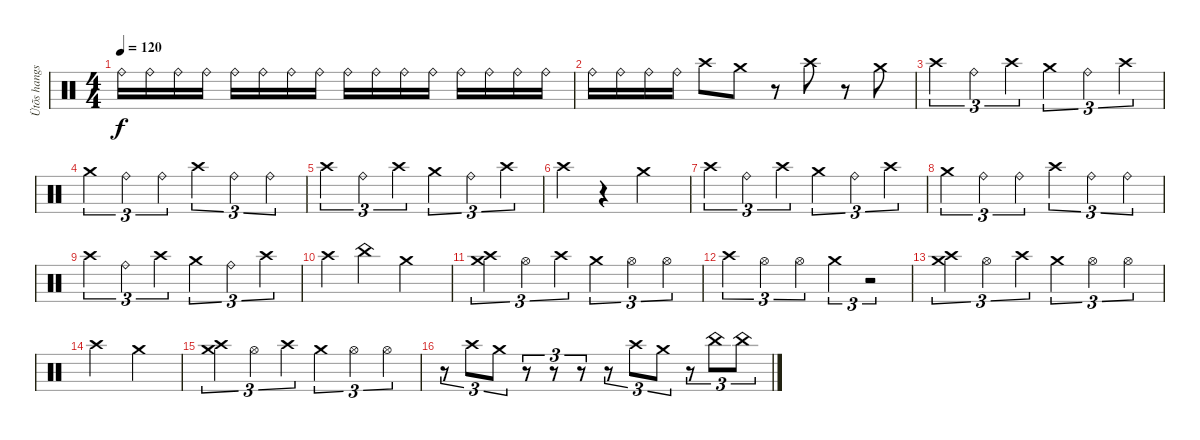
\track ("Ütõs hangszer" "Ütõs hangs") {instrument percussion}
\staff {score}
\articulation defaults
\ts (4 4)
\tempo 120
\clef neutral
\ks c "Ride (bell)".16{dy f} "Ride (bell)".16 "Ride (bell)".16 "Ride (bell)".16 "Ride (bell)".16 "Ride (bell)".16 "Ride (bell)".16 "Ride (bell)".16 "Ride (bell)".16 "Ride (bell)".16 "Ride (bell)".16 "Ride (bell)".16 "Ride (bell)".16 "Ride (bell)".16 "Ride (bell)".16 "Ride (bell)".16
|
"Ride (bell)".16 "Ride (bell)".16 "Ride (bell)".16 "Ride (bell)".16 "Crash high (hit)".8 "Crash medium (hit)".8 r.8 "Crash high (hit)".8 r.8 "Crash medium (hit)".8 |
"Crash high (hit)".4{tu (3 2)} "Ride (bell)".4{tu (3 2)} "Crash high (hit)".4{tu (3 2)} "Crash medium (hit)".4{tu (3 2)} "Ride (bell)".4{tu (3 2)} "Crash high (hit)".4{tu (3 2)} |
"Crash medium (hit)".4{tu (3 2)} "Ride (bell)".4{tu (3 2)} "Ride (bell)".4{tu (3 2)} "Crash high (hit)".4{tu (3 2)} "Ride (bell)".4{tu (3 2)} "Ride (bell)".4{tu (3 2)} |
"Crash high (hit)".4{tu (3 2)} "Ride (bell)".4{tu (3 2)} "Crash high (hit)".4{tu (3 2)} "Crash medium (hit)".4{tu (3 2)} "Ride (bell)".4{tu (3 2)} "Crash high (hit)".4{tu (3 2)} |
"Crash high (hit)".4 r.4 "Crash medium (hit)".2 |
"Crash high (hit)".4{tu (3 2)} "Ride (bell)".4{tu (3 2)} "Crash high (hit)".4{tu (3 2)} "Crash medium (hit)".4{tu (3 2)} "Ride (bell)".4{tu (3 2)} "Crash high (hit)".4{tu (3 2)} |
"Crash medium (hit)".4{tu (3 2)} "Ride (bell)".4{tu (3 2)} "Ride (bell)".4{tu (3 2)} "Crash high (hit)".4{tu (3 2)} "Ride (bell)".4{tu (3 2)} "Ride (bell)".4{tu (3 2)} |
"Crash high (hit)".4{tu (3 2)} "Ride (bell)".4{tu (3 2)} "Crash high (hit)".4{tu (3 2)} "Crash medium (hit)".4{tu (3 2)} "Ride (bell)".4{tu (3 2)} "Crash high (hit)".4{tu (3 2)} |
"Crash high (hit)".4 "China (hit)".4 "Crash medium (hit)".2 |
("Crash medium (hit)" "Crash high (hit)").4{tu (3 2)} "Hi-Hat (open)".4{tu (3 2)} "Crash high (hit)".4{tu (3 2)} "Crash medium (hit)".4{tu (3 2)} "Hi-Hat (open)".4{tu (3 2)} "Hi-Hat (open)".4{tu (3 2)} |
"Crash high (hit)".4{tu (3 2)} "Hi-Hat (open)".4{tu (3 2)} "Hi-Hat (open)".4{tu (3 2)} "Crash medium (hit)".4{tu (3 2)} r.2{tu (3 2)} |
("Crash medium (hit)" "Crash high (hit)").4{tu (3 2)} "Hi-Hat (open)".4{tu (3 2)} "Crash high (hit)".4{tu (3 2)} "Crash medium (hit)".4{tu (3 2)} "Hi-Hat (open)".4{tu (3 2)} "Hi-Hat (open)".4{tu (3 2)} |
"Crash high (hit)".2 "Crash medium (hit)".2 |
("Crash medium (hit)" "Crash high (hit)").4{tu (3 2)} "Hi-Hat (open)".4{tu (3 2)} "Crash high (hit)".4{tu (3 2)} "Crash medium (hit)".4{tu (3 2)} "Hi-Hat (open)".4{tu (3 2)} "Hi-Hat (open)".4{tu (3 2)} |
r.8{tu (3 2)} "Crash high (hit)".8{tu (3 2)} "Crash medium (hit)".8{tu (3 2)} r.8{tu (3 2)} r.8{tu (3 2)} r.8{tu (3 2)} r.8{tu (3 2)} "Crash high (hit)".8{tu (3 2)} "Crash medium (hit)".8{tu (3 2)} r.8{tu (3 2)} "China (hit)".8{tu (3 2)} "China (hit)".8{tu (3 2)}
